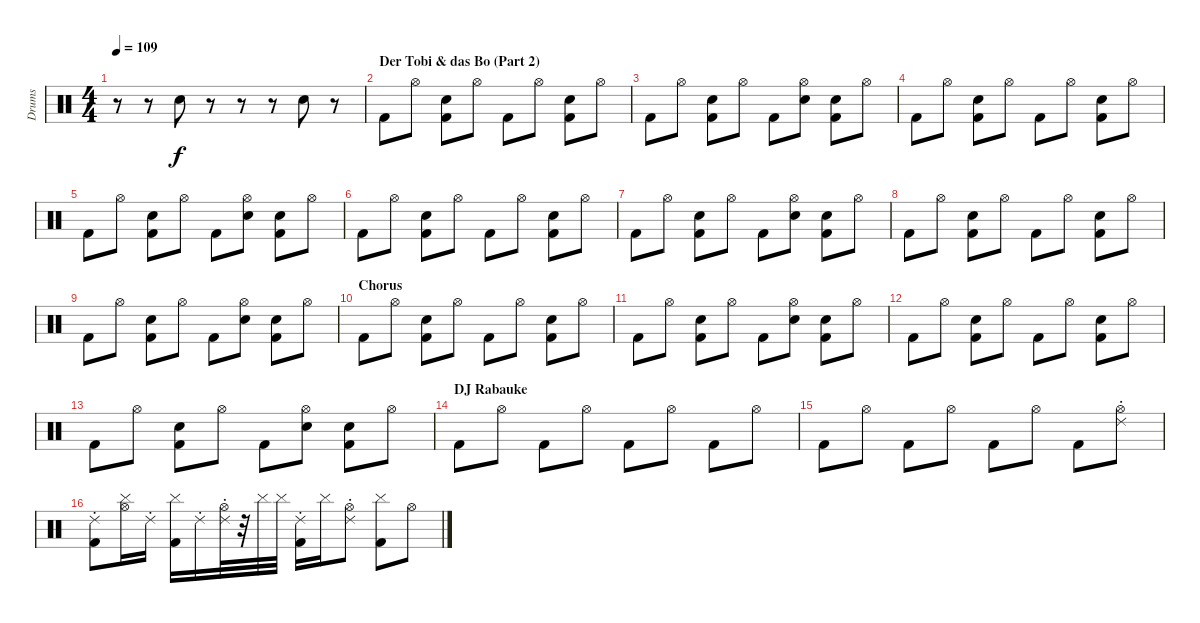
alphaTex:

\track ("Drums" "Drums") {instrument percussion}
\staff {score}
\articulation defaults
\ts (4 4)
\tempo 109
\clef neutral
\ks c
r.8{dy f} r.8 "Hand Clap (hit)".8 r.8 r.8 r.8 "Hand Clap (hit)".8 r.8 |
\section ("" "Der Tobi & das Bo (Part 2)")
"Kick (hit) 2".8 "Hi-Hat (open)".8 ("Hand Clap (hit)" "Kick (hit) 2").8 "Hi-Hat (open)".8 "Kick (hit) 2".8 "Hi-Hat (open)".8 ("Hand Clap (hit)" "Kick (hit) 2").8 "Hi-Hat (open)".8 |
"Kick (hit) 2".8 "Hi-Hat (open)".8 ("Hand Clap (hit)" "Kick (hit) 2").8 "Hi-Hat (open)".8 "Kick (hit) 2".8 ("Hi-Hat (open)" "Hand Clap (hit)").8 ("Hand Clap (hit)" "Kick (hit) 2").8 "Hi-Hat (open)".8 |
"Kick (hit) 2".8 "Hi-Hat (open)".8 ("Hand Clap (hit)" "Kick (hit) 2").8 "Hi-Hat (open)".8 "Kick (hit) 2".8 "Hi-Hat (open)".8 ("Hand Clap (hit)" "Kick (hit) 2").8 "Hi-Hat (open)".8 |
"Kick (hit) 2".8 "Hi-Hat (open)".8 ("Hand Clap (hit)" "Kick (hit) 2").8 "Hi-Hat (open)".8 "Kick (hit) 2".8 ("Hi-Hat (open)" "Hand Clap (hit)").8 ("Hand Clap (hit)" "Kick (hit) 2").8 "Hi-Hat (open)".8 |
"Kick (hit) 2".8 "Hi-Hat (open)".8 ("Hand Clap (hit)" "Kick (hit) 2").8 "Hi-Hat (open)".8 "Kick (hit) 2".8 "Hi-Hat (open)".8 ("Hand Clap (hit)" "Kick (hit) 2").8 "Hi-Hat (open)".8 |
"Kick (hit) 2".8 "Hi-Hat (open)".8 ("Hand Clap (hit)" "Kick (hit) 2").8 "Hi-Hat (open)".8 "Kick (hit) 2".8 ("Hi-Hat (open)" "Hand Clap (hit)").8 ("Hand Clap (hit)" "Kick (hit) 2").8 "Hi-Hat (open)".8 |
"Kick (hit) 2".8 "Hi-Hat (open)".8 ("Hand Clap (hit)" "Kick (hit) 2").8 "Hi-Hat (open)".8 "Kick (hit) 2".8 "Hi-Hat (open)".8 ("Hand Clap (hit)" "Kick (hit) 2").8 "Hi-Hat (open)".8 |
"Kick (hit) 2".8 "Hi-Hat (open)".8 ("Hand Clap (hit)" "Kick (hit) 2").8 "Hi-Hat (open)".8 "Kick (hit) 2".8 ("Hi-Hat (open)" "Hand Clap (hit)").8 ("Hand Clap (hit)" "Kick (hit) 2").8 "Hi-Hat (open)".8 |
\section ("" "Chorus")
"Kick (hit) 2".8 "Hi-Hat (open)".8 ("Hand Clap (hit)" "Kick (hit) 2").8 "Hi-Hat (open)".8 "Kick (hit) 2".8 "Hi-Hat (open)".8 ("Hand Clap (hit)" "Kick (hit) 2").8 "Hi-Hat (open)".8 |
"Kick (hit) 2".8 "Hi-Hat (open)".8 ("Hand Clap (hit)" "Kick (hit) 2").8 "Hi-Hat (open)".8 "Kick (hit) 2".8 ("Hi-Hat (open)" "Hand Clap (hit)").8 ("Hand Clap (hit)" "Kick (hit) 2").8 "Hi-Hat (open)".8 |
"Kick (hit) 2".8 "Hi-Hat (open)".8 ("Hand Clap (hit)" "Kick (hit) 2").8 "Hi-Hat (open)".8 "Kick (hit) 2".8 "Hi-Hat (open)".8 ("Hand Clap (hit)" "Kick (hit) 2").8 "Hi-Hat (open)".8 |
"Kick (hit) 2".8 "Hi-Hat (open)".8 ("Hand Clap (hit)" "Kick (hit) 2").8 "Hi-Hat (open)".8 "Kick (hit) 2".8 ("Hi-Hat (open)" "Hand Clap (hit)").8 ("Hand Clap (hit)" "Kick (hit) 2").8 "Hi-Hat (open)".8 |
\section ("" "DJ Rabauke")
"Kick (hit) 2".8 "Hi-Hat (open)".8 "Kick (hit) 2".8 "Hi-Hat (open)".8 "Kick (hit) 2".8 "Hi-Hat (open)".8 "Kick (hit) 2".8 "Hi-Hat (open)".8 |
"Kick (hit) 2".8 "Hi-Hat (open)".8 "Kick (hit) 2".8 "Hi-Hat (open)".8 "Kick (hit) 2".8 "Hi-Hat (open)".8 "Kick (hit) 2".8 ("Ride (choke) 2" "Hi-Hat (open)").8 |
("Ride (choke) 2" "Kick (hit) 2").8 ("Cymbal (hit)" "Hi-Hat (open)").16 "Ride (choke) 2".16 ("Cymbal (hit)" "Kick (hit) 2").16 "Ride (choke) 2".16 ("Ride (choke) 2" "Hi-Hat (open)").32 r.32 "Cymbal (hit)".32 "Cymbal (hit)".32 ("Ride (choke) 2" "Kick (hit) 2").16 "Cymbal (hit)".16 ("Ride (choke) 2" "Hi-Hat (open)").8 ("Cymbal (hit)" "Kick (hit) 2").8 "Hi-Hat (open)".8
